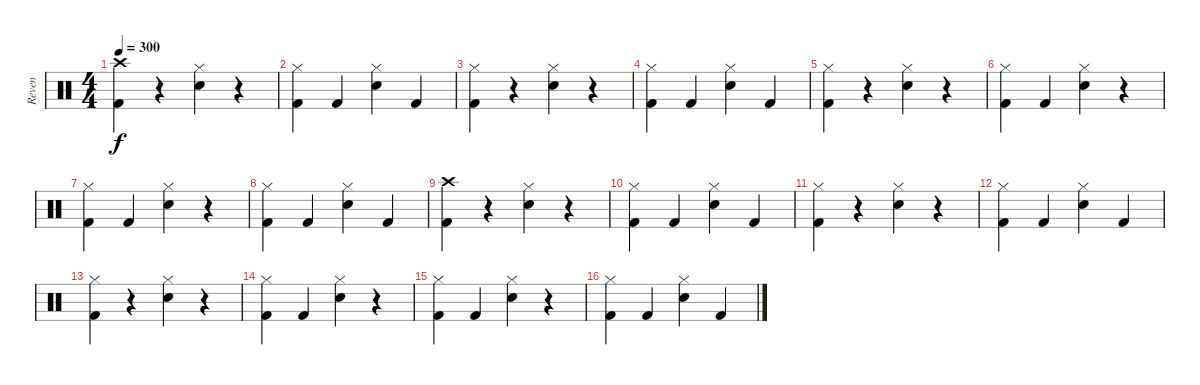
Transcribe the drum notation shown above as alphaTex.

\track ("Reven" "Reven") {instrument percussion}
\staff {score}
\articulation defaults
\ts (4 4)
\tempo 300
\clef neutral
\ks c
("Crash high (hit)" "Kick (hit) 2").4{dy f} r.4 ("Hi-Hat (closed)" "Electric Snare (hit)").4 r.4 |
("Hi-Hat (closed)" "Kick (hit) 2").4 "Kick (hit) 2".4 ("Hi-Hat (closed)" "Electric Snare (hit)").4 "Kick (hit) 2".4 |
("Hi-Hat (closed)" "Kick (hit) 2").4 r.4 ("Hi-Hat (closed)" "Electric Snare (hit)").4 r.4 |
("Hi-Hat (closed)" "Kick (hit) 2").4 "Kick (hit) 2".4 ("Hi-Hat (closed)" "Electric Snare (hit)").4 "Kick (hit) 2".4 |
("Hi-Hat (closed)" "Kick (hit) 2").4 r.4 ("Hi-Hat (closed)" "Electric Snare (hit)").4 r.4 |
("Hi-Hat (closed)" "Kick (hit) 2").4 "Kick (hit) 2".4 ("Hi-Hat (closed)" "Electric Snare (hit)").4 r.4 |
("Hi-Hat (closed)" "Kick (hit) 2").4 "Kick (hit) 2".4 ("Hi-Hat (closed)" "Electric Snare (hit)").4 r.4 |
("Hi-Hat (closed)" "Kick (hit) 2").4 "Kick (hit) 2".4 ("Hi-Hat (closed)" "Electric Snare (hit)").4 "Kick (hit) 2".4 |
("Crash high (hit)" "Kick (hit) 2").4 r.4 ("Hi-Hat (closed)" "Electric Snare (hit)").4 r.4 |
("Hi-Hat (closed)" "Kick (hit) 2").4 "Kick (hit) 2".4 ("Hi-Hat (closed)" "Electric Snare (hit)").4 "Kick (hit) 2".4 |
("Hi-Hat (closed)" "Kick (hit) 2").4 r.4 ("Hi-Hat (closed)" "Electric Snare (hit)").4 r.4 |
("Hi-Hat (closed)" "Kick (hit) 2").4 "Kick (hit) 2".4 ("Hi-Hat (closed)" "Electric Snare (hit)").4 "Kick (hit) 2".4 |
("Hi-Hat (closed)" "Kick (hit) 2").4 r.4 ("Hi-Hat (closed)" "Electric Snare (hit)").4 r.4 |
("Hi-Hat (closed)" "Kick (hit) 2").4 "Kick (hit) 2".4 ("Hi-Hat (closed)" "Electric Snare (hit)").4 r.4 |
("Hi-Hat (closed)" "Kick (hit) 2").4 "Kick (hit) 2".4 ("Hi-Hat (closed)" "Electric Snare (hit)").4 r.4 |
("Hi-Hat (closed)" "Kick (hit) 2").4 "Kick (hit) 2".4 ("Hi-Hat (closed)" "Electric Snare (hit)").4 "Kick (hit) 2".4
